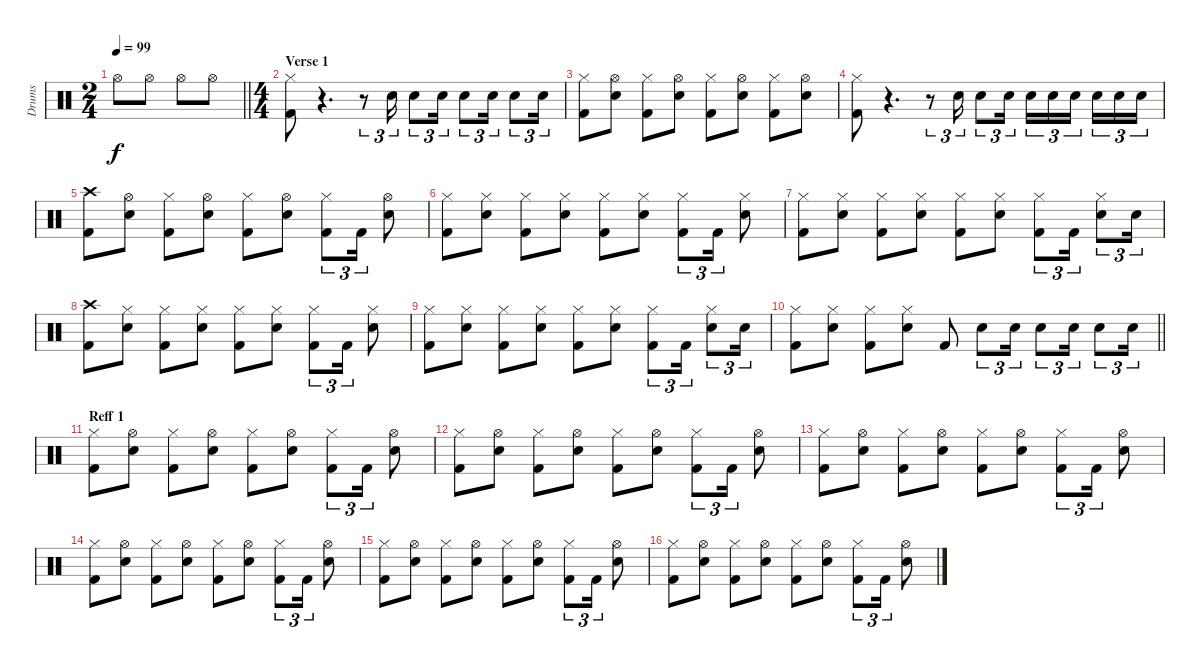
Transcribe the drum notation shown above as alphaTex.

\track ("Drums" "Drums") {instrument percussion}
\staff {score}
\articulation defaults
\ts (2 4)
\tempo 99
\clef neutral
\barLineRight lightlight
\ks c "Hi-Hat (open)".8{dy f} "Hi-Hat (open)".8 "Hi-Hat (open)".8 "Hi-Hat (open)".8
|
\ts (4 4)
\section ("" "Verse 1")
("Hi-Hat (closed)" "Kick (hit) 2").8 r.4{d} r.8{tu (3 2)} "Snare (hit) 2".16{tu (3 2)} "Snare (hit) 2".8{tu (3 2)} "Snare (hit) 2".16{tu (3 2)} "Snare (hit) 2".8{tu (3 2)} "Snare (hit) 2".16{tu (3 2)} "Snare (hit) 2".8{tu (3 2)} "Snare (hit) 2".16{tu (3 2)} |
("Hi-Hat (closed)" "Kick (hit) 2").8 ("Hi-Hat (open)" "Snare (hit) 2").8 ("Hi-Hat (closed)" "Kick (hit) 2").8 ("Hi-Hat (open)" "Snare (hit) 2").8 ("Hi-Hat (closed)" "Kick (hit) 2").8 ("Hi-Hat (open)" "Snare (hit) 2").8 ("Hi-Hat (closed)" "Kick (hit) 2").8 ("Hi-Hat (open)" "Snare (hit) 2").8 |
("Hi-Hat (closed)" "Kick (hit) 2").8 r.4{d} r.8{tu (3 2)} "Snare (hit) 2".16{tu (3 2)} "Snare (hit) 2".8{tu (3 2)} "Snare (hit) 2".16{tu (3 2)} "Snare (hit) 2".16{tu (3 2)} "Snare (hit) 2".16{tu (3 2)} "Snare (hit) 2".16{tu (3 2) beam splitsecondary} "Snare (hit) 2".16{tu (3 2)} "Snare (hit) 2".16{tu (3 2)} "Snare (hit) 2".16{tu (3 2)} |
("Crash high (hit)" "Kick (hit) 2").8 ("Hi-Hat (open)" "Snare (hit) 2").8 ("Hi-Hat (closed)" "Kick (hit) 2").8 ("Hi-Hat (open)" "Snare (hit) 2").8 ("Hi-Hat (closed)" "Kick (hit) 2").8 ("Hi-Hat (open)" "Snare (hit) 2").8 ("Hi-Hat (closed)" "Kick (hit) 2").8{tu (3 2)} "Kick (hit) 2".16{tu (3 2)} ("Hi-Hat (open)" "Snare (hit) 2").8 |
("Hi-Hat (closed)" "Kick (hit) 2").8 ("Hi-Hat (closed)" "Snare (hit) 2").8 ("Hi-Hat (closed)" "Kick (hit) 2").8 ("Hi-Hat (closed)" "Snare (hit) 2").8 ("Hi-Hat (closed)" "Kick (hit) 2").8 ("Hi-Hat (closed)" "Snare (hit) 2").8 ("Hi-Hat (closed)" "Kick (hit) 2").8{tu (3 2)} "Kick (hit) 2".16{tu (3 2)} ("Hi-Hat (closed)" "Snare (hit) 2").8 |
("Hi-Hat (closed)" "Kick (hit) 2").8 ("Hi-Hat (closed)" "Snare (hit) 2").8 ("Hi-Hat (closed)" "Kick (hit) 2").8 ("Hi-Hat (closed)" "Snare (hit) 2").8 ("Hi-Hat (closed)" "Kick (hit) 2").8 ("Hi-Hat (closed)" "Snare (hit) 2").8 ("Hi-Hat (closed)" "Kick (hit) 2").8{tu (3 2)} "Kick (hit) 2".16{tu (3 2)} ("Hi-Hat (closed)" "Snare (hit) 2").8{tu (3 2)} "Snare (hit) 2".16{tu (3 2)} |
("Crash high (hit)" "Kick (hit) 2").8 ("Hi-Hat (closed)" "Snare (hit) 2").8 ("Hi-Hat (closed)" "Kick (hit) 2").8 ("Hi-Hat (closed)" "Snare (hit) 2").8 ("Hi-Hat (closed)" "Kick (hit) 2").8 ("Hi-Hat (closed)" "Snare (hit) 2").8 ("Hi-Hat (closed)" "Kick (hit) 2").8{tu (3 2)} "Kick (hit) 2".16{tu (3 2)} ("Hi-Hat (closed)" "Snare (hit) 2").8 |
("Hi-Hat (closed)" "Kick (hit) 2").8 ("Hi-Hat (closed)" "Snare (hit) 2").8 ("Hi-Hat (closed)" "Kick (hit) 2").8 ("Hi-Hat (closed)" "Snare (hit) 2").8 ("Hi-Hat (closed)" "Kick (hit) 2").8 ("Hi-Hat (closed)" "Snare (hit) 2").8 ("Hi-Hat (closed)" "Kick (hit) 2").8{tu (3 2)} "Kick (hit) 2".16{tu (3 2)} ("Hi-Hat (closed)" "Snare (hit) 2").8{tu (3 2)} "Snare (hit) 2".16{tu (3 2)} |
\barLineRight lightlight
("Hi-Hat (closed)" "Kick (hit) 2").8 ("Hi-Hat (closed)" "Snare (hit) 2").8 ("Hi-Hat (closed)" "Kick (hit) 2").8 ("Hi-Hat (closed)" "Snare (hit) 2").8 "Kick (hit) 2".8 "Snare (hit) 2".8{tu (3 2)} "Snare (hit) 2".16{tu (3 2)} "Snare (hit) 2".8{tu (3 2)} "Snare (hit) 2".16{tu (3 2)} "Snare (hit) 2".8{tu (3 2)} "Snare (hit) 2".16{tu (3 2)} |
\section ("" "Reff 1")
("Hi-Hat (closed)" "Kick (hit) 2").8 ("Hi-Hat (open)" "Snare (hit) 2").8 ("Hi-Hat (closed)" "Kick (hit) 2").8 ("Hi-Hat (open)" "Snare (hit) 2").8 ("Hi-Hat (closed)" "Kick (hit) 2").8 ("Hi-Hat (open)" "Snare (hit) 2").8 ("Hi-Hat (closed)" "Kick (hit) 2").8{tu (3 2)} "Kick (hit) 2".16{tu (3 2)} ("Hi-Hat (open)" "Snare (hit) 2").8 |
("Hi-Hat (closed)" "Kick (hit) 2").8 ("Hi-Hat (open)" "Snare (hit) 2").8 ("Hi-Hat (closed)" "Kick (hit) 2").8 ("Hi-Hat (open)" "Snare (hit) 2").8 ("Hi-Hat (closed)" "Kick (hit) 2").8 ("Hi-Hat (open)" "Snare (hit) 2").8 ("Hi-Hat (closed)" "Kick (hit) 2").8{tu (3 2)} "Kick (hit) 2".16{tu (3 2)} ("Hi-Hat (open)" "Snare (hit) 2").8 |
("Hi-Hat (closed)" "Kick (hit) 2").8 ("Hi-Hat (open)" "Snare (hit) 2").8 ("Hi-Hat (closed)" "Kick (hit) 2").8 ("Hi-Hat (open)" "Snare (hit) 2").8 ("Hi-Hat (closed)" "Kick (hit) 2").8 ("Hi-Hat (open)" "Snare (hit) 2").8 ("Hi-Hat (closed)" "Kick (hit) 2").8{tu (3 2)} "Kick (hit) 2".16{tu (3 2)} ("Hi-Hat (open)" "Snare (hit) 2").8 |
("Hi-Hat (closed)" "Kick (hit) 2").8 ("Hi-Hat (open)" "Snare (hit) 2").8 ("Hi-Hat (closed)" "Kick (hit) 2").8 ("Hi-Hat (open)" "Snare (hit) 2").8 ("Hi-Hat (closed)" "Kick (hit) 2").8 ("Hi-Hat (open)" "Snare (hit) 2").8 ("Hi-Hat (closed)" "Kick (hit) 2").8{tu (3 2)} "Kick (hit) 2".16{tu (3 2)} ("Hi-Hat (open)" "Snare (hit) 2").8 |
("Hi-Hat (closed)" "Kick (hit) 2").8 ("Hi-Hat (open)" "Snare (hit) 2").8 ("Hi-Hat (closed)" "Kick (hit) 2").8 ("Hi-Hat (open)" "Snare (hit) 2").8 ("Hi-Hat (closed)" "Kick (hit) 2").8 ("Hi-Hat (open)" "Snare (hit) 2").8 ("Hi-Hat (closed)" "Kick (hit) 2").8{tu (3 2)} "Kick (hit) 2".16{tu (3 2)} ("Hi-Hat (open)" "Snare (hit) 2").8 |
("Hi-Hat (closed)" "Kick (hit) 2").8 ("Hi-Hat (open)" "Snare (hit) 2").8 ("Hi-Hat (closed)" "Kick (hit) 2").8 ("Hi-Hat (open)" "Snare (hit) 2").8 ("Hi-Hat (closed)" "Kick (hit) 2").8 ("Hi-Hat (open)" "Snare (hit) 2").8 ("Hi-Hat (closed)" "Kick (hit) 2").8{tu (3 2)} "Kick (hit) 2".16{tu (3 2)} ("Hi-Hat (open)" "Snare (hit) 2").8
